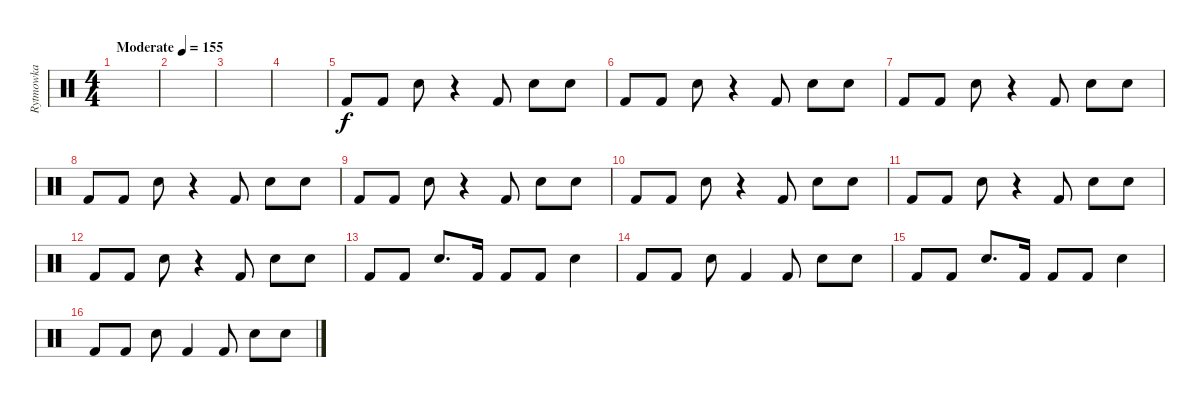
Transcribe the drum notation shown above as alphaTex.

\track ("Rytmowka" "Rytmowka") {instrument percussion}
\staff {score}
\articulation defaults
\ts (4 4)
\tempo (155 "Moderate")
\clef neutral
\ks c
|
|
|
|
"Kick (hit) 2".8 "Kick (hit) 2".8 "Snare (hit) 2".8 r.4 "Kick (hit) 2".8 "Snare (hit) 2".8 "Snare (hit) 2".8 |
"Kick (hit) 2".8 "Kick (hit) 2".8 "Snare (hit) 2".8 r.4 "Kick (hit) 2".8 "Snare (hit) 2".8 "Snare (hit) 2".8 |
"Kick (hit) 2".8 "Kick (hit) 2".8 "Snare (hit) 2".8 r.4 "Kick (hit) 2".8 "Snare (hit) 2".8 "Snare (hit) 2".8 |
"Kick (hit) 2".8 "Kick (hit) 2".8 "Snare (hit) 2".8 r.4 "Kick (hit) 2".8 "Snare (hit) 2".8 "Snare (hit) 2".8 |
"Kick (hit) 2".8 "Kick (hit) 2".8 "Snare (hit) 2".8 r.4 "Kick (hit) 2".8 "Snare (hit) 2".8 "Snare (hit) 2".8 |
"Kick (hit) 2".8 "Kick (hit) 2".8 "Snare (hit) 2".8 r.4 "Kick (hit) 2".8 "Snare (hit) 2".8 "Snare (hit) 2".8 |
"Kick (hit) 2".8 "Kick (hit) 2".8 "Snare (hit) 2".8 r.4 "Kick (hit) 2".8 "Snare (hit) 2".8 "Snare (hit) 2".8 |
"Kick (hit) 2".8 "Kick (hit) 2".8 "Snare (hit) 2".8 r.4 "Kick (hit) 2".8 "Snare (hit) 2".8 "Snare (hit) 2".8 |
"Kick (hit) 2".8 "Kick (hit) 2".8 "Snare (hit) 2".8{d} "Kick (hit) 2".16 "Kick (hit) 2".8 "Kick (hit) 2".8 "Snare (hit) 2".4 |
"Kick (hit) 2".8 "Kick (hit) 2".8 "Snare (hit) 2".8 "Kick (hit) 2".4 "Kick (hit) 2".8 "Snare (hit) 2".8 "Snare (hit) 2".8 |
"Kick (hit) 2".8 "Kick (hit) 2".8 "Snare (hit) 2".8{d} "Kick (hit) 2".16 "Kick (hit) 2".8 "Kick (hit) 2".8 "Snare (hit) 2".4 |
"Kick (hit) 2".8 "Kick (hit) 2".8 "Snare (hit) 2".8 "Kick (hit) 2".4 "Kick (hit) 2".8 "Snare (hit) 2".8 "Snare (hit) 2".8
